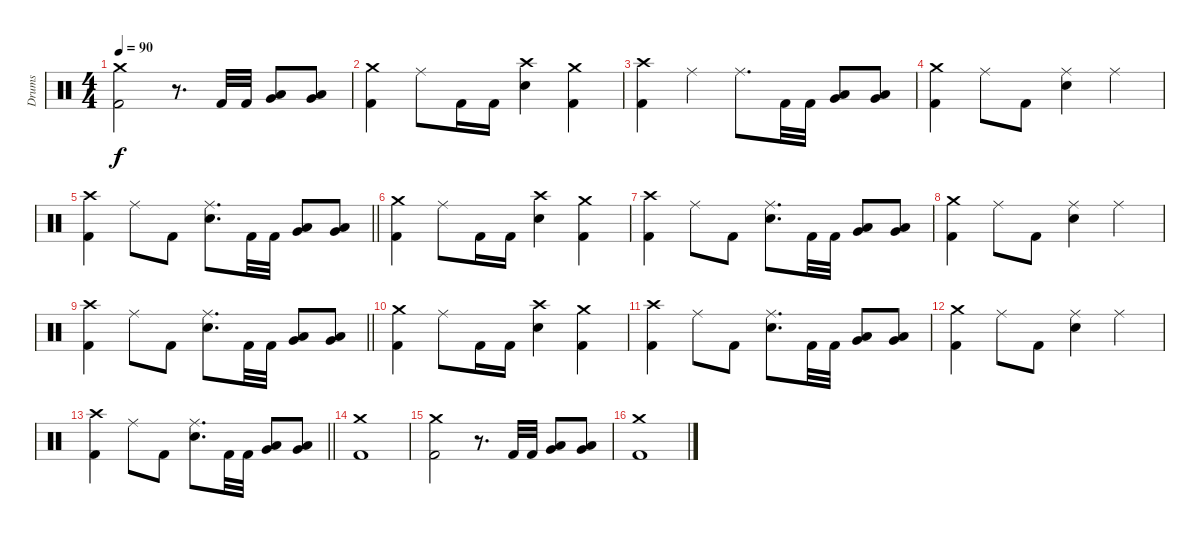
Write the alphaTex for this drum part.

\track ("Drums" "Drums") {instrument percussion}
\staff {score}
\articulation defaults
\ts (4 4)
\tempo 90
\clef neutral
\ks c
("Crash medium (hit)" "Kick (hit) 2").2{dy f} r.8{d} "Kick (hit) 2".32 "Kick (hit) 2".32 ("Low Tom (hit)" "Very Low Tom (hit)").8 ("Low Tom (hit)" "Very Low Tom (hit)").8 |
("Crash medium (hit)" "Kick (hit) 2").4 "Ride (middle)".8 "Kick (hit) 2".16 "Kick (hit) 2".16 ("Crash high (hit)" "Snare (hit) 2").4 ("Crash medium (hit)" "Kick (hit) 2").4 |
("Crash high (hit)" "Kick (hit) 2").4 "Ride (middle)".4 "Ride (middle)".8{d} "Kick (hit) 2".32 "Kick (hit) 2".32 ("Low Tom (hit)" "Very Low Tom (hit)").8 ("Low Tom (hit)" "Very Low Tom (hit)").8 |
("Crash medium (hit)" "Kick (hit) 2").4 "Ride (middle)".8 "Kick (hit) 2".8 ("Ride (middle)" "Snare (hit) 2").4 "Ride (middle)".4 |
\barLineRight lightlight
("Crash high (hit)" "Kick (hit) 2").4 "Ride (middle)".8 "Kick (hit) 2".8 ("Ride (middle)" "Snare (hit) 2").8{d} "Kick (hit) 2".32 "Kick (hit) 2".32 ("Low Tom (hit)" "Very Low Tom (hit)").8 ("Low Tom (hit)" "Very Low Tom (hit)").8 |
("Crash medium (hit)" "Kick (hit) 2").4 "Ride (middle)".8 "Kick (hit) 2".16 "Kick (hit) 2".16 ("Crash high (hit)" "Snare (hit) 2").4 ("Crash medium (hit)" "Kick (hit) 2").4 |
("Crash high (hit)" "Kick (hit) 2").4 "Ride (middle)".8 "Kick (hit) 2".8 ("Ride (middle)" "Snare (hit) 2").8{d} "Kick (hit) 2".32 "Kick (hit) 2".32 ("Low Tom (hit)" "Very Low Tom (hit)").8 ("Low Tom (hit)" "Very Low Tom (hit)").8 |
("Crash medium (hit)" "Kick (hit) 2").4 "Ride (middle)".8 "Kick (hit) 2".8 ("Ride (middle)" "Snare (hit) 2").4 "Ride (middle)".4 |
\barLineRight lightlight
("Crash high (hit)" "Kick (hit) 2").4 "Ride (middle)".8 "Kick (hit) 2".8 ("Ride (middle)" "Snare (hit) 2").8{d} "Kick (hit) 2".32 "Kick (hit) 2".32 ("Low Tom (hit)" "Very Low Tom (hit)").8 ("Low Tom (hit)" "Very Low Tom (hit)").8 |
("Crash medium (hit)" "Kick (hit) 2").4 "Ride (middle)".8 "Kick (hit) 2".16 "Kick (hit) 2".16 ("Crash high (hit)" "Snare (hit) 2").4 ("Crash medium (hit)" "Kick (hit) 2").4 |
("Crash high (hit)" "Kick (hit) 2").4 "Ride (middle)".8 "Kick (hit) 2".8 ("Ride (middle)" "Snare (hit) 2").8{d} "Kick (hit) 2".32 "Kick (hit) 2".32 ("Low Tom (hit)" "Very Low Tom (hit)").8 ("Low Tom (hit)" "Very Low Tom (hit)").8 |
("Crash medium (hit)" "Kick (hit) 2").4 "Ride (middle)".8 "Kick (hit) 2".8 ("Ride (middle)" "Snare (hit) 2").4 "Ride (middle)".4 |
\barLineRight lightlight
("Crash high (hit)" "Kick (hit) 2").4 "Ride (middle)".8 "Kick (hit) 2".8 ("Ride (middle)" "Snare (hit) 2").8{d} "Kick (hit) 2".32 "Kick (hit) 2".32 ("Low Tom (hit)" "Very Low Tom (hit)").8 ("Low Tom (hit)" "Very Low Tom (hit)").8 |
("Crash medium (hit)" "Kick (hit) 2").1 |
("Crash medium (hit)" "Kick (hit) 2").2 r.8{d} "Kick (hit) 2".32 "Kick (hit) 2".32 ("Low Tom (hit)" "Very Low Tom (hit)").8 ("Low Tom (hit)" "Very Low Tom (hit)").8 |
("Crash medium (hit)" "Kick (hit) 2").1
